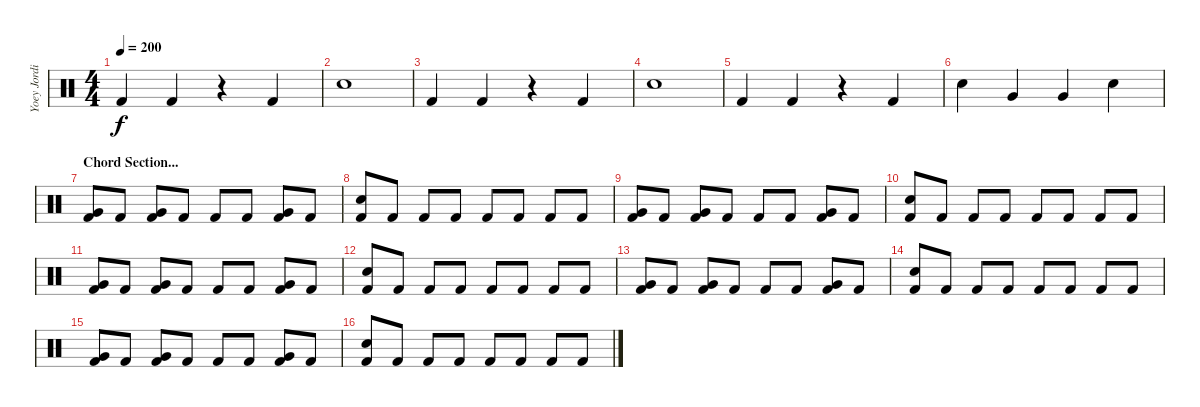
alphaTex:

\track ("Yoey Jordison" "Yoey Jordi") {instrument percussion}
\staff {score}
\articulation defaults
\ts (4 4)
\tempo 200
\clef neutral
\ks c "Kick (hit) 2".4{dy f} "Kick (hit) 2".4
r.4 "Kick (hit) 2".4 |
"Snare (hit) 2".1 |
"Kick (hit) 2".4 "Kick (hit) 2".4 r.4 "Kick (hit) 2".4 |
"Snare (hit) 2".1 |
"Kick (hit) 2".4 "Kick (hit) 2".4 r.4 "Kick (hit) 2".4 |
"Snare (hit) 2".4 "Very Low Tom (hit)".4 "Very Low Tom (hit)".4 "Snare (hit) 2".4 |
\section ("" "Chord Section...")
("Kick (hit) 2" "Very Low Tom (hit)").8 "Kick (hit) 2".8 ("Kick (hit) 2" "Very Low Tom (hit)").8 "Kick (hit) 2".8 "Kick (hit) 2".8 "Kick (hit) 2".8 ("Kick (hit) 2" "Very Low Tom (hit)").8 "Kick (hit) 2".8 |
("Kick (hit) 2" "Snare (hit) 2").8 "Kick (hit) 2".8 "Kick (hit) 2".8 "Kick (hit) 2".8 "Kick (hit) 2".8 "Kick (hit) 2".8 "Kick (hit) 2".8 "Kick (hit) 2".8 |
("Kick (hit) 2" "Very Low Tom (hit)").8 "Kick (hit) 2".8 ("Kick (hit) 2" "Very Low Tom (hit)").8 "Kick (hit) 2".8 "Kick (hit) 2".8 "Kick (hit) 2".8 ("Kick (hit) 2" "Very Low Tom (hit)").8 "Kick (hit) 2".8 |
("Kick (hit) 2" "Snare (hit) 2").8 "Kick (hit) 2".8 "Kick (hit) 2".8 "Kick (hit) 2".8 "Kick (hit) 2".8 "Kick (hit) 2".8 "Kick (hit) 2".8 "Kick (hit) 2".8 |
("Kick (hit) 2" "Very Low Tom (hit)").8 "Kick (hit) 2".8 ("Kick (hit) 2" "Very Low Tom (hit)").8 "Kick (hit) 2".8 "Kick (hit) 2".8 "Kick (hit) 2".8 ("Kick (hit) 2" "Very Low Tom (hit)").8 "Kick (hit) 2".8 |
("Kick (hit) 2" "Snare (hit) 2").8 "Kick (hit) 2".8 "Kick (hit) 2".8 "Kick (hit) 2".8 "Kick (hit) 2".8 "Kick (hit) 2".8 "Kick (hit) 2".8 "Kick (hit) 2".8 |
("Kick (hit) 2" "Very Low Tom (hit)").8 "Kick (hit) 2".8 ("Kick (hit) 2" "Very Low Tom (hit)").8 "Kick (hit) 2".8 "Kick (hit) 2".8 "Kick (hit) 2".8 ("Kick (hit) 2" "Very Low Tom (hit)").8 "Kick (hit) 2".8 |
("Kick (hit) 2" "Snare (hit) 2").8 "Kick (hit) 2".8 "Kick (hit) 2".8 "Kick (hit) 2".8 "Kick (hit) 2".8 "Kick (hit) 2".8 "Kick (hit) 2".8 "Kick (hit) 2".8 |
("Kick (hit) 2" "Very Low Tom (hit)").8 "Kick (hit) 2".8 ("Kick (hit) 2" "Very Low Tom (hit)").8 "Kick (hit) 2".8 "Kick (hit) 2".8 "Kick (hit) 2".8 ("Kick (hit) 2" "Very Low Tom (hit)").8 "Kick (hit) 2".8 |
("Kick (hit) 2" "Snare (hit) 2").8 "Kick (hit) 2".8 "Kick (hit) 2".8 "Kick (hit) 2".8 "Kick (hit) 2".8 "Kick (hit) 2".8 "Kick (hit) 2".8 "Kick (hit) 2".8
